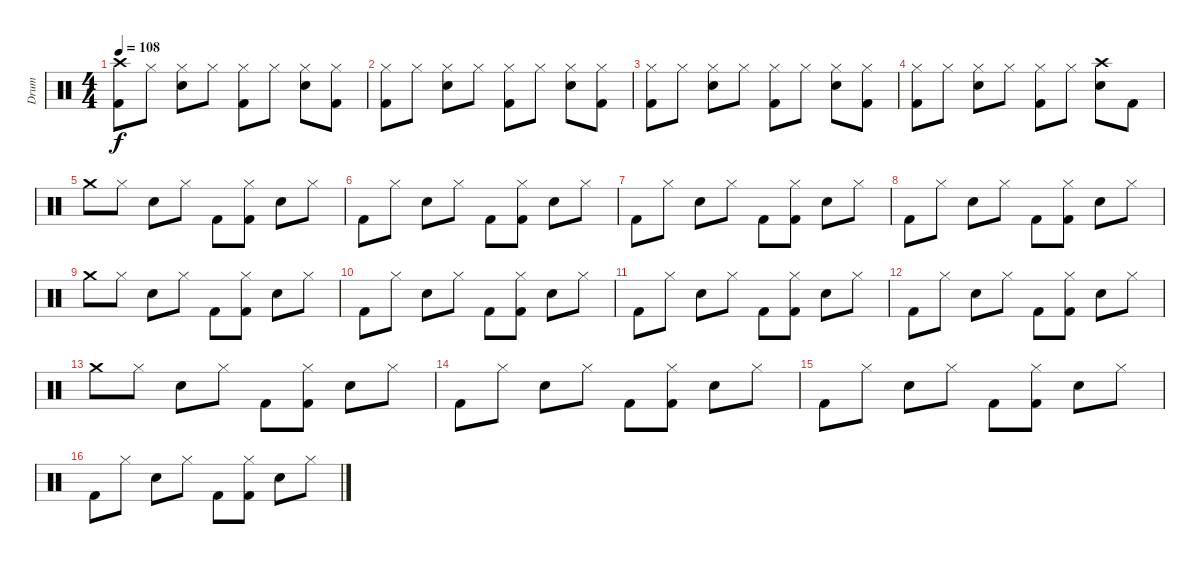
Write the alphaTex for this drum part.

\track ("Drum" "Drum") {instrument percussion}
\staff {score}
\articulation defaults
\ts (4 4)
\tempo 108
\clef neutral
\ks c
("Crash high (hit)" "Kick (hit) 2").8{dy f} "Hi-Hat (closed)".8 ("Hi-Hat (closed)" "Electric Snare (hit)").8 "Hi-Hat (closed)".8 ("Hi-Hat (closed)" "Kick (hit) 2").8 "Hi-Hat (closed)".8 ("Hi-Hat (closed)" "Electric Snare (hit)").8 ("Hi-Hat (closed)" "Kick (hit) 2").8 |
("Hi-Hat (closed)" "Kick (hit) 2").8 "Hi-Hat (closed)".8 ("Hi-Hat (closed)" "Electric Snare (hit)").8 "Hi-Hat (closed)".8 ("Hi-Hat (closed)" "Kick (hit) 2").8 "Hi-Hat (closed)".8 ("Hi-Hat (closed)" "Electric Snare (hit)").8 ("Hi-Hat (closed)" "Kick (hit) 2").8 |
("Hi-Hat (closed)" "Kick (hit) 2").8 "Hi-Hat (closed)".8 ("Hi-Hat (closed)" "Electric Snare (hit)").8 "Hi-Hat (closed)".8 ("Hi-Hat (closed)" "Kick (hit) 2").8 "Hi-Hat (closed)".8 ("Hi-Hat (closed)" "Electric Snare (hit)").8 ("Hi-Hat (closed)" "Kick (hit) 2").8 |
("Hi-Hat (closed)" "Kick (hit) 2").8 "Hi-Hat (closed)".8 ("Hi-Hat (closed)" "Electric Snare (hit)").8 "Hi-Hat (closed)".8 ("Hi-Hat (closed)" "Kick (hit) 2").8 "Hi-Hat (closed)".8 ("Crash high (hit)" "Electric Snare (hit)").8 "Kick (hit) 2".8 |
"Crash medium (hit)".8 "Hi-Hat (closed)".8 "Electric Snare (hit)".8 "Hi-Hat (closed)".8 "Kick (hit) 2".8 ("Hi-Hat (closed)" "Kick (hit) 2").8 "Electric Snare (hit)".8 "Hi-Hat (closed)".8 |
"Kick (hit) 2".8 "Hi-Hat (closed)".8 "Electric Snare (hit)".8 "Hi-Hat (closed)".8 "Kick (hit) 2".8 ("Hi-Hat (closed)" "Kick (hit) 2").8 "Electric Snare (hit)".8 "Hi-Hat (closed)".8 |
"Kick (hit) 2".8 "Hi-Hat (closed)".8 "Electric Snare (hit)".8 "Hi-Hat (closed)".8 "Kick (hit) 2".8 ("Hi-Hat (closed)" "Kick (hit) 2").8 "Electric Snare (hit)".8 "Hi-Hat (closed)".8 |
"Kick (hit) 2".8 "Hi-Hat (closed)".8 "Electric Snare (hit)".8 "Hi-Hat (closed)".8 "Kick (hit) 2".8 ("Hi-Hat (closed)" "Kick (hit) 2").8 "Electric Snare (hit)".8 "Hi-Hat (closed)".8 |
"Crash medium (hit)".8 "Hi-Hat (closed)".8 "Electric Snare (hit)".8 "Hi-Hat (closed)".8 "Kick (hit) 2".8 ("Hi-Hat (closed)" "Kick (hit) 2").8 "Electric Snare (hit)".8 "Hi-Hat (closed)".8 |
"Kick (hit) 2".8 "Hi-Hat (closed)".8 "Electric Snare (hit)".8 "Hi-Hat (closed)".8 "Kick (hit) 2".8 ("Hi-Hat (closed)" "Kick (hit) 2").8 "Electric Snare (hit)".8 "Hi-Hat (closed)".8 |
"Kick (hit) 2".8 "Hi-Hat (closed)".8 "Electric Snare (hit)".8 "Hi-Hat (closed)".8 "Kick (hit) 2".8 ("Hi-Hat (closed)" "Kick (hit) 2").8 "Electric Snare (hit)".8 "Hi-Hat (closed)".8 |
"Kick (hit) 2".8 "Hi-Hat (closed)".8 "Electric Snare (hit)".8 "Hi-Hat (closed)".8 "Kick (hit) 2".8 ("Hi-Hat (closed)" "Kick (hit) 2").8 "Electric Snare (hit)".8 "Hi-Hat (closed)".8 |
"Crash medium (hit)".8 "Hi-Hat (closed)".8 "Electric Snare (hit)".8 "Hi-Hat (closed)".8 "Kick (hit) 2".8 ("Hi-Hat (closed)" "Kick (hit) 2").8 "Electric Snare (hit)".8 "Hi-Hat (closed)".8 |
"Kick (hit) 2".8 "Hi-Hat (closed)".8 "Electric Snare (hit)".8 "Hi-Hat (closed)".8 "Kick (hit) 2".8 ("Hi-Hat (closed)" "Kick (hit) 2").8 "Electric Snare (hit)".8 "Hi-Hat (closed)".8 |
"Kick (hit) 2".8 "Hi-Hat (closed)".8 "Electric Snare (hit)".8 "Hi-Hat (closed)".8 "Kick (hit) 2".8 ("Hi-Hat (closed)" "Kick (hit) 2").8 "Electric Snare (hit)".8 "Hi-Hat (closed)".8 |
"Kick (hit) 2".8 "Hi-Hat (closed)".8 "Electric Snare (hit)".8 "Hi-Hat (closed)".8 "Kick (hit) 2".8 ("Hi-Hat (closed)" "Kick (hit) 2").8 "Electric Snare (hit)".8 "Hi-Hat (closed)".8
